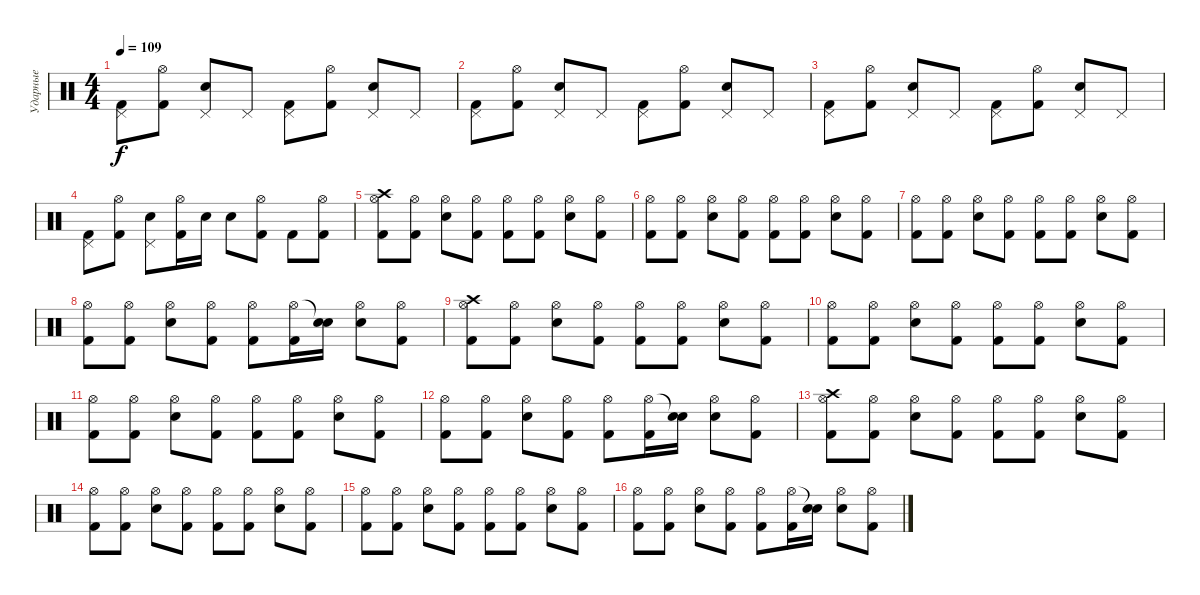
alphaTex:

\track ("Ударные" "Ударные") {instrument percussion}
\staff {score}
\articulation defaults
\ts (4 4)
\tempo 109
\clef neutral
\ks c
("Kick (hit) 2" "Pedal Hi-Hat (hit)").8{dy f} ("Kick (hit) 2" "Hi-Hat (open)").8 ("Pedal Hi-Hat (hit)" "Snare (hit) 2").8 "Pedal Hi-Hat (hit)".8 ("Kick (hit) 2" "Pedal Hi-Hat (hit)").8 ("Kick (hit) 2" "Hi-Hat (open)").8 ("Pedal Hi-Hat (hit)" "Snare (hit) 2").8 "Pedal Hi-Hat (hit)".8 |
("Kick (hit) 2" "Pedal Hi-Hat (hit)").8 ("Kick (hit) 2" "Hi-Hat (open)").8 ("Pedal Hi-Hat (hit)" "Snare (hit) 2").8 "Pedal Hi-Hat (hit)".8 ("Kick (hit) 2" "Pedal Hi-Hat (hit)").8 ("Kick (hit) 2" "Hi-Hat (open)").8 ("Pedal Hi-Hat (hit)" "Snare (hit) 2").8 "Pedal Hi-Hat (hit)".8 |
("Kick (hit) 2" "Pedal Hi-Hat (hit)").8 ("Kick (hit) 2" "Hi-Hat (open)").8 ("Pedal Hi-Hat (hit)" "Snare (hit) 2").8 "Pedal Hi-Hat (hit)".8 ("Kick (hit) 2" "Pedal Hi-Hat (hit)").8 ("Kick (hit) 2" "Hi-Hat (open)").8 ("Pedal Hi-Hat (hit)" "Snare (hit) 2").8 "Pedal Hi-Hat (hit)".8 |
("Kick (hit) 2" "Pedal Hi-Hat (hit)").8 ("Kick (hit) 2" "Hi-Hat (open)").8 ("Pedal Hi-Hat (hit)" "Snare (hit) 2").8 ("Kick (hit) 2" "Hi-Hat (open)").16 "Snare (hit) 2".16 "Snare (hit) 2".8 ("Kick (hit) 2" "Hi-Hat (open)").8 "Kick (hit) 2".8 ("Kick (hit) 2" "Hi-Hat (open)").8 |
("Kick (hit) 2" "Crash high (hit)" "Hi-Hat (open)").8 ("Kick (hit) 2" "Hi-Hat (open)").8 ("Snare (hit) 2" "Hi-Hat (open)").8 ("Kick (hit) 2" "Hi-Hat (open)").8 ("Kick (hit) 2" "Hi-Hat (open)").8 ("Kick (hit) 2" "Hi-Hat (open)").8 ("Snare (hit) 2" "Hi-Hat (open)").8 ("Kick (hit) 2" "Hi-Hat (open)").8 |
("Kick (hit) 2" "Hi-Hat (open)").8 ("Kick (hit) 2" "Hi-Hat (open)").8 ("Snare (hit) 2" "Hi-Hat (open)").8 ("Kick (hit) 2" "Hi-Hat (open)").8 ("Kick (hit) 2" "Hi-Hat (open)").8 ("Kick (hit) 2" "Hi-Hat (open)").8 ("Snare (hit) 2" "Hi-Hat (open)").8 ("Kick (hit) 2" "Hi-Hat (open)").8 |
("Kick (hit) 2" "Hi-Hat (open)").8 ("Kick (hit) 2" "Hi-Hat (open)").8 ("Snare (hit) 2" "Hi-Hat (open)").8 ("Kick (hit) 2" "Hi-Hat (open)").8 ("Kick (hit) 2" "Hi-Hat (open)").8 ("Kick (hit) 2" "Hi-Hat (open)").8 ("Snare (hit) 2" "Hi-Hat (open)").8 ("Kick (hit) 2" "Hi-Hat (open)").8 |
("Kick (hit) 2" "Hi-Hat (open)").8 ("Kick (hit) 2" "Hi-Hat (open)").8 ("Snare (hit) 2" "Hi-Hat (open)").8 ("Kick (hit) 2" "Hi-Hat (open)").8 ("Kick (hit) 2" "Hi-Hat (open)").8 ("Kick (hit) 2" "Hi-Hat (open)").16 ("Snare (hit) 2" "Snare (hit)"{t}).16 ("Snare (hit) 2" "Hi-Hat (open)").8 ("Kick (hit) 2" "Hi-Hat (open)").8 |
("Kick (hit) 2" "Crash high (hit)" "Hi-Hat (open)").8 ("Kick (hit) 2" "Hi-Hat (open)").8 ("Snare (hit) 2" "Hi-Hat (open)").8 ("Kick (hit) 2" "Hi-Hat (open)").8 ("Kick (hit) 2" "Hi-Hat (open)").8 ("Kick (hit) 2" "Hi-Hat (open)").8 ("Snare (hit) 2" "Hi-Hat (open)").8 ("Kick (hit) 2" "Hi-Hat (open)").8 |
("Kick (hit) 2" "Hi-Hat (open)").8 ("Kick (hit) 2" "Hi-Hat (open)").8 ("Snare (hit) 2" "Hi-Hat (open)").8 ("Kick (hit) 2" "Hi-Hat (open)").8 ("Kick (hit) 2" "Hi-Hat (open)").8 ("Kick (hit) 2" "Hi-Hat (open)").8 ("Snare (hit) 2" "Hi-Hat (open)").8 ("Kick (hit) 2" "Hi-Hat (open)").8 |
("Kick (hit) 2" "Hi-Hat (open)").8 ("Kick (hit) 2" "Hi-Hat (open)").8 ("Snare (hit) 2" "Hi-Hat (open)").8 ("Kick (hit) 2" "Hi-Hat (open)").8 ("Kick (hit) 2" "Hi-Hat (open)").8 ("Kick (hit) 2" "Hi-Hat (open)").8 ("Snare (hit) 2" "Hi-Hat (open)").8 ("Kick (hit) 2" "Hi-Hat (open)").8 |
("Kick (hit) 2" "Hi-Hat (open)").8 ("Kick (hit) 2" "Hi-Hat (open)").8 ("Snare (hit) 2" "Hi-Hat (open)").8 ("Kick (hit) 2" "Hi-Hat (open)").8 ("Kick (hit) 2" "Hi-Hat (open)").8 ("Kick (hit) 2" "Hi-Hat (open)").16 ("Snare (hit) 2" "Snare (hit)"{t}).16 ("Snare (hit) 2" "Hi-Hat (open)").8 ("Kick (hit) 2" "Hi-Hat (open)").8 |
("Kick (hit) 2" "Crash high (hit)" "Hi-Hat (open)").8 ("Kick (hit) 2" "Hi-Hat (open)").8 ("Snare (hit) 2" "Hi-Hat (open)").8 ("Kick (hit) 2" "Hi-Hat (open)").8 ("Kick (hit) 2" "Hi-Hat (open)").8 ("Kick (hit) 2" "Hi-Hat (open)").8 ("Snare (hit) 2" "Hi-Hat (open)").8 ("Kick (hit) 2" "Hi-Hat (open)").8 |
("Kick (hit) 2" "Hi-Hat (open)").8 ("Kick (hit) 2" "Hi-Hat (open)").8 ("Snare (hit) 2" "Hi-Hat (open)").8 ("Kick (hit) 2" "Hi-Hat (open)").8 ("Kick (hit) 2" "Hi-Hat (open)").8 ("Kick (hit) 2" "Hi-Hat (open)").8 ("Snare (hit) 2" "Hi-Hat (open)").8 ("Kick (hit) 2" "Hi-Hat (open)").8 |
("Kick (hit) 2" "Hi-Hat (open)").8 ("Kick (hit) 2" "Hi-Hat (open)").8 ("Snare (hit) 2" "Hi-Hat (open)").8 ("Kick (hit) 2" "Hi-Hat (open)").8 ("Kick (hit) 2" "Hi-Hat (open)").8 ("Kick (hit) 2" "Hi-Hat (open)").8 ("Snare (hit) 2" "Hi-Hat (open)").8 ("Kick (hit) 2" "Hi-Hat (open)").8 |
("Kick (hit) 2" "Hi-Hat (open)").8 ("Kick (hit) 2" "Hi-Hat (open)").8 ("Snare (hit) 2" "Hi-Hat (open)").8 ("Kick (hit) 2" "Hi-Hat (open)").8 ("Kick (hit) 2" "Hi-Hat (open)").8 ("Kick (hit) 2" "Hi-Hat (open)").16 ("Snare (hit) 2" "Snare (hit)"{t}).16 ("Snare (hit) 2" "Hi-Hat (open)").8 ("Kick (hit) 2" "Hi-Hat (open)").8
